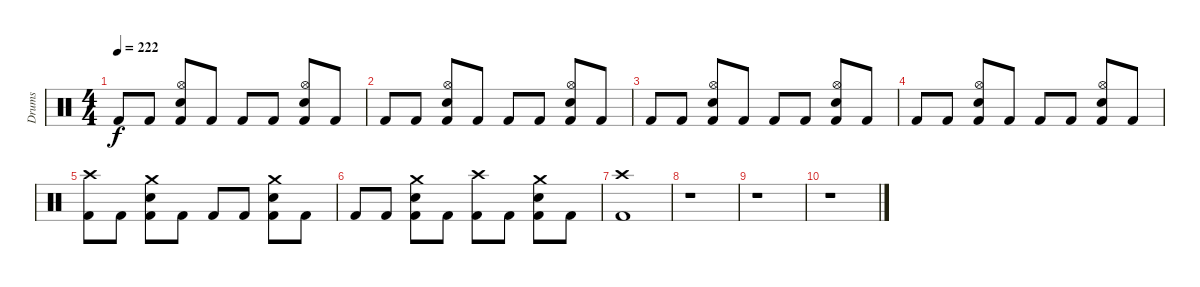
\track ("Drums" "Drums") {instrument percussion}
\staff {score}
\articulation defaults
\ts (4 4)
\tempo 222
\clef neutral
\ks c "Kick (hit) 2".8{dy f} "Kick (hit) 2".8
("Hi-Hat (open)" "Snare (hit) 2" "Kick (hit) 2").8 "Kick (hit) 2".8 "Kick (hit) 2".8 "Kick (hit) 2".8 ("Hi-Hat (open)" "Snare (hit) 2" "Kick (hit) 2").8 "Kick (hit) 2".8 |
"Kick (hit) 2".8 "Kick (hit) 2".8 ("Hi-Hat (open)" "Snare (hit) 2" "Kick (hit) 2").8 "Kick (hit) 2".8 "Kick (hit) 2".8 "Kick (hit) 2".8 ("Hi-Hat (open)" "Snare (hit) 2" "Kick (hit) 2").8 "Kick (hit) 2".8 |
"Kick (hit) 2".8 "Kick (hit) 2".8 ("Hi-Hat (open)" "Snare (hit) 2" "Kick (hit) 2").8 "Kick (hit) 2".8 "Kick (hit) 2".8 "Kick (hit) 2".8 ("Hi-Hat (open)" "Snare (hit) 2" "Kick (hit) 2").8 "Kick (hit) 2".8 |
"Kick (hit) 2".8 "Kick (hit) 2".8 ("Hi-Hat (open)" "Snare (hit) 2" "Kick (hit) 2").8 "Kick (hit) 2".8 "Kick (hit) 2".8 "Kick (hit) 2".8 ("Hi-Hat (open)" "Snare (hit) 2" "Kick (hit) 2").8 "Kick (hit) 2".8 |
("Crash high (hit)" "Kick (hit) 2").8 "Kick (hit) 2".8 ("Crash medium (hit)" "Snare (hit) 2" "Kick (hit) 2").8 "Kick (hit) 2".8 "Kick (hit) 2".8 "Kick (hit) 2".8 ("Crash medium (hit)" "Snare (hit) 2" "Kick (hit) 2").8 "Kick (hit) 2".8 |
"Kick (hit) 2".8 "Kick (hit) 2".8 ("Crash medium (hit)" "Snare (hit) 2" "Kick (hit) 2").8 "Kick (hit) 2".8 ("Crash high (hit)" "Kick (hit) 2").8 "Kick (hit) 2".8 ("Crash medium (hit)" "Snare (hit) 2" "Kick (hit) 2").8 "Kick (hit) 2".8 |
("Crash high (hit)" "Kick (hit) 2").1 |
r.1 |
r.1 |
r.1
